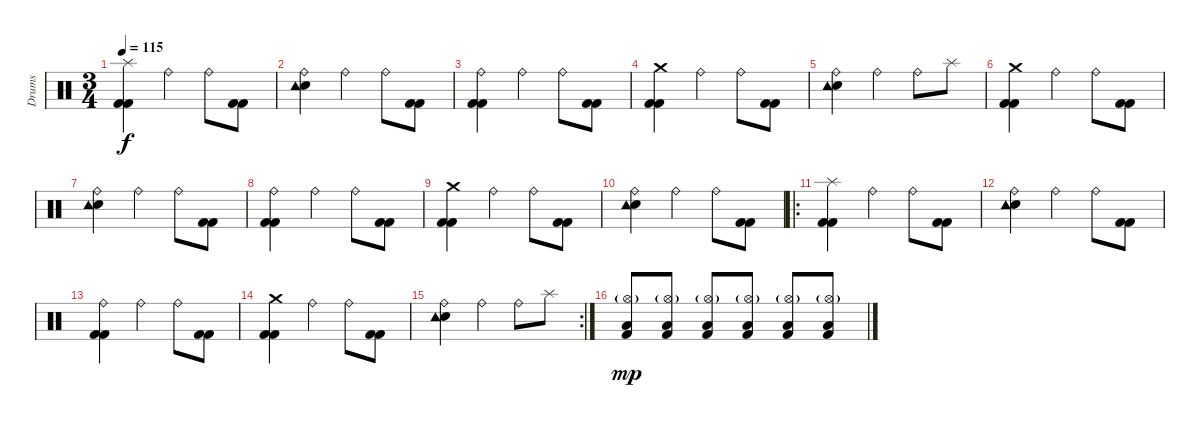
\track ("Drums" "Drums") {instrument percussion}
\staff {score}
\articulation defaults
\ts (3 4)
\tempo 115
\clef neutral
\ks c
("Splash (hit)" "Kick (hit) 2" "Kick (hit) 2").4{dy f} "Ride (bell)".4 "Ride (bell)".8 ("Kick (hit) 2" "Kick (hit) 2").8 |
("Ride (bell)" "Electric Snare (hit)" "Tambourine (hit)").4 "Ride (bell)".4 "Ride (bell)".8 ("Kick (hit) 2" "Kick (hit) 2").8 |
("Ride (bell)" "Kick (hit) 2" "Kick (hit) 2").4 "Ride (bell)".4 "Ride (bell)".8 ("Kick (hit) 2" "Kick (hit) 2").8 |
("Crash medium (hit)" "Kick (hit) 2" "Kick (hit) 2").4 "Ride (bell)".4 "Ride (bell)".8 ("Kick (hit) 2" "Kick (hit) 2").8 |
("Ride (bell)" "Electric Snare (hit)" "Tambourine (hit)").4 "Ride (bell)".4 "Ride (bell)".8 "Splash (hit)".8 |
("Crash medium (hit)" "Kick (hit) 2" "Kick (hit) 2").4 "Ride (bell)".4 "Ride (bell)".8 ("Kick (hit) 2" "Kick (hit) 2").8 |
("Ride (bell)" "Electric Snare (hit)" "Tambourine (hit)").4 "Ride (bell)".4 "Ride (bell)".8 ("Kick (hit) 2" "Kick (hit) 2").8 |
("Ride (bell)" "Kick (hit) 2" "Kick (hit) 2").4 "Ride (bell)".4 "Ride (bell)".8 ("Kick (hit) 2" "Kick (hit) 2").8 |
("Crash medium (hit)" "Kick (hit) 2" "Kick (hit) 2").4 "Ride (bell)".4 "Ride (bell)".8 ("Kick (hit) 2" "Kick (hit) 2").8 |
("Ride (bell)" "Electric Snare (hit)" "Tambourine (hit)").4 "Ride (bell)".4 "Ride (bell)".8 ("Kick (hit) 2" "Kick (hit) 2").8 |
\ro
("Splash (hit)" "Kick (hit) 2" "Kick (hit) 2").4 "Ride (bell)".4 "Ride (bell)".8 ("Kick (hit) 2" "Kick (hit) 2").8 |
("Ride (bell)" "Electric Snare (hit)" "Tambourine (hit)").4 "Ride (bell)".4 "Ride (bell)".8 ("Kick (hit) 2" "Kick (hit) 2").8 |
("Ride (bell)" "Kick (hit) 2" "Kick (hit) 2").4 "Ride (bell)".4 "Ride (bell)".8 ("Kick (hit) 2" "Kick (hit) 2").8 |
("Crash medium (hit)" "Kick (hit) 2" "Kick (hit) 2").4 "Ride (bell)".4 "Ride (bell)".8 ("Kick (hit) 2" "Kick (hit) 2").8 |
\rc 2
("Ride (bell)" "Electric Snare (hit)" "Tambourine (hit)").4 "Ride (bell)".4 "Ride (bell)".8 "Splash (hit)".8 |
("Hi-Hat (open)"{g} "Low Tom (hit)" "Kick (hit) 2").8{dy mp} ("Hi-Hat (open)"{g} "Low Tom (hit)" "Kick (hit) 2").8 ("Hi-Hat (open)"{g} "Low Tom (hit)" "Kick (hit) 2").8 ("Hi-Hat (open)"{g} "Low Tom (hit)" "Kick (hit) 2").8 ("Hi-Hat (open)"{g} "Low Tom (hit)" "Kick (hit) 2").8 ("Hi-Hat (open)"{g} "Low Tom (hit)" "Kick (hit) 2").8
